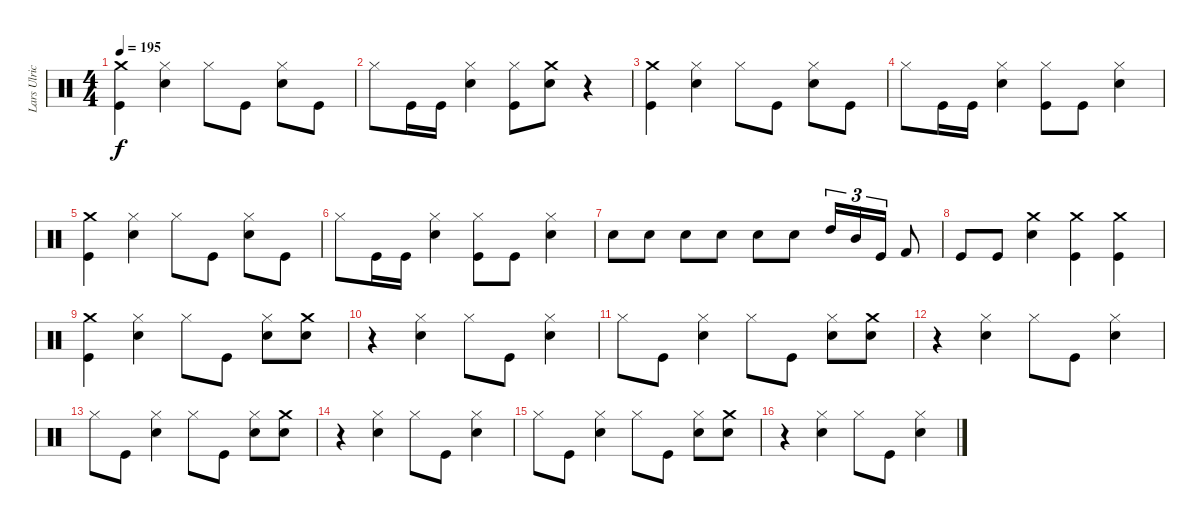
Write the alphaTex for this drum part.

\track ("Lars Ulrich (Drums)" "Lars Ulric") {instrument percussion}
\staff {score}
\articulation defaults
\ts (4 4)
\tempo 195
\clef neutral
\ks c
("Kick (hit)" "Crash medium (hit)").4{dy f} ("Hi-Hat (closed)" "Snare (hit) 2").4 "Hi-Hat (closed)".8 "Kick (hit)".8 ("Snare (hit) 2" "Hi-Hat (closed)").8 "Kick (hit)".8 |
"Hi-Hat (closed)".8 "Kick (hit)".16 "Kick (hit)".16 ("Snare (hit) 2" "Hi-Hat (closed)").4 ("Kick (hit)" "Hi-Hat (closed)").8 ("Snare (hit) 2" "Crash medium (hit)").8 r.4 |
("Kick (hit)" "Crash medium (hit)").4 ("Hi-Hat (closed)" "Snare (hit) 2").4 "Hi-Hat (closed)".8 "Kick (hit)".8 ("Snare (hit) 2" "Hi-Hat (closed)").8 "Kick (hit)".8 |
"Hi-Hat (closed)".8 "Kick (hit)".16 "Kick (hit)".16 ("Snare (hit) 2" "Hi-Hat (closed)").4 ("Hi-Hat (closed)" "Kick (hit)").8 "Kick (hit)".8 ("Snare (hit) 2" "Hi-Hat (closed)").4 |
("Kick (hit)" "Crash medium (hit)").4 ("Hi-Hat (closed)" "Snare (hit) 2").4 "Hi-Hat (closed)".8 "Kick (hit)".8 ("Snare (hit) 2" "Hi-Hat (closed)").8 "Kick (hit)".8 |
"Hi-Hat (closed)".8 "Kick (hit)".16 "Kick (hit)".16 ("Snare (hit) 2" "Hi-Hat (closed)").4 ("Hi-Hat (closed)" "Kick (hit)").8 "Kick (hit)".8 ("Snare (hit) 2" "Hi-Hat (closed)").4 |
"Snare (hit) 2".8 "Snare (hit) 2".8 "Snare (hit) 2".8 "Snare (hit) 2".8 "Snare (hit) 2".8 "Snare (hit) 2".8 "High Tom (hit)".16{tu (3 2)} "Mid Tom (hit)".16{tu (3 2)} "Kick (hit)".16{tu (3 2)} "Kick (hit) 2".8 |
"Kick (hit)".8 "Kick (hit)".8 ("Crash medium (hit)" "Snare (hit) 2").4 ("Crash medium (hit)" "Kick (hit)").4 ("Crash medium (hit)" "Kick (hit)").4 |
("Kick (hit)" "Crash medium (hit)").4 ("Hi-Hat (closed)" "Snare (hit) 2").4 "Hi-Hat (closed)".8 "Kick (hit)".8 ("Hi-Hat (closed)" "Snare (hit) 2").8 ("Crash medium (hit)" "Snare (hit) 2").8 |
r.4 ("Snare (hit) 2" "Hi-Hat (closed)").4 "Hi-Hat (closed)".8 "Kick (hit)".8 ("Snare (hit) 2" "Hi-Hat (closed)").4 |
"Hi-Hat (closed)".8 "Kick (hit)".8 ("Snare (hit) 2" "Hi-Hat (closed)").4 "Hi-Hat (closed)".8 "Kick (hit)".8 ("Hi-Hat (closed)" "Snare (hit) 2").8 ("Crash medium (hit)" "Snare (hit) 2").8 |
r.4 ("Snare (hit) 2" "Hi-Hat (closed)").4 "Hi-Hat (closed)".8 "Kick (hit)".8 ("Snare (hit) 2" "Hi-Hat (closed)").4 |
"Hi-Hat (closed)".8 "Kick (hit)".8 ("Snare (hit) 2" "Hi-Hat (closed)").4 "Hi-Hat (closed)".8 "Kick (hit)".8 ("Hi-Hat (closed)" "Snare (hit) 2").8 ("Crash medium (hit)" "Snare (hit) 2").8 |
r.4 ("Snare (hit) 2" "Hi-Hat (closed)").4 "Hi-Hat (closed)".8 "Kick (hit)".8 ("Snare (hit) 2" "Hi-Hat (closed)").4 |
"Hi-Hat (closed)".8 "Kick (hit)".8 ("Snare (hit) 2" "Hi-Hat (closed)").4 "Hi-Hat (closed)".8 "Kick (hit)".8 ("Hi-Hat (closed)" "Snare (hit) 2").8 ("Crash medium (hit)" "Snare (hit) 2").8 |
r.4 ("Snare (hit) 2" "Hi-Hat (closed)").4 "Hi-Hat (closed)".8 "Kick (hit)".8 ("Snare (hit) 2" "Hi-Hat (closed)").4
